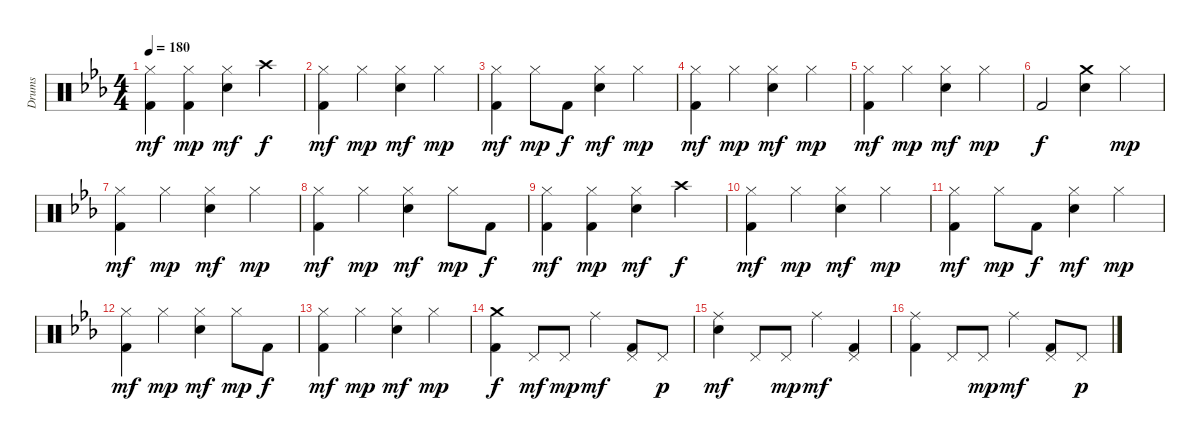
\track ("Drums" "Drums") {instrument percussion}
\staff {score}
\articulation defaults
\ts (4 4)
\tempo 180
\clef neutral
\ks eb
("Hi-Hat (closed)" "Kick (hit) 2").4{dy mf} ("Hi-Hat (closed)" "Kick (hit) 2").4{dy mp} ("Hi-Hat (closed)" "Electric Snare (hit)").4{dy mf} "Crash high (hit)".4{dy f} |
("Hi-Hat (closed)" "Kick (hit) 2").4{dy mf} "Hi-Hat (closed)".4{dy mp} ("Hi-Hat (closed)" "Electric Snare (hit)").4{dy mf} "Hi-Hat (closed)".4{dy mp} |
("Hi-Hat (closed)" "Kick (hit) 2").4{dy mf} "Hi-Hat (closed)".8{dy mp} "Kick (hit) 2".8{dy f} ("Hi-Hat (closed)" "Electric Snare (hit)").4{dy mf} "Hi-Hat (closed)".4{dy mp} |
("Hi-Hat (closed)" "Kick (hit) 2").4{dy mf} "Hi-Hat (closed)".4{dy mp} ("Hi-Hat (closed)" "Electric Snare (hit)").4{dy mf} "Hi-Hat (closed)".4{dy mp} |
("Hi-Hat (closed)" "Kick (hit) 2").4{dy mf} "Hi-Hat (closed)".4{dy mp} ("Hi-Hat (closed)" "Electric Snare (hit)").4{dy mf} "Hi-Hat (closed)".4{dy mp} |
"Kick (hit) 2".2{dy f} ("Crash medium (hit)" "Electric Snare (hit)").4 "Hi-Hat (closed)".4{dy mp} |
("Hi-Hat (closed)" "Kick (hit) 2").4{dy mf} "Hi-Hat (closed)".4{dy mp} ("Hi-Hat (closed)" "Electric Snare (hit)").4{dy mf} "Hi-Hat (closed)".4{dy mp} |
("Hi-Hat (closed)" "Kick (hit) 2").4{dy mf} "Hi-Hat (closed)".4{dy mp} ("Hi-Hat (closed)" "Electric Snare (hit)").4{dy mf} "Hi-Hat (closed)".8{dy mp} "Kick (hit) 2".8{dy f} |
("Hi-Hat (closed)" "Kick (hit) 2").4{dy mf} ("Hi-Hat (closed)" "Kick (hit) 2").4{dy mp} ("Hi-Hat (closed)" "Electric Snare (hit)").4{dy mf} "Crash high (hit)".4{dy f} |
("Hi-Hat (closed)" "Kick (hit) 2").4{dy mf} "Hi-Hat (closed)".4{dy mp} ("Hi-Hat (closed)" "Electric Snare (hit)").4{dy mf} "Hi-Hat (closed)".4{dy mp} |
("Hi-Hat (closed)" "Kick (hit) 2").4{dy mf} "Hi-Hat (closed)".8{dy mp} "Kick (hit) 2".8{dy f} ("Hi-Hat (closed)" "Electric Snare (hit)").4{dy mf} "Hi-Hat (closed)".4{dy mp} |
("Hi-Hat (closed)" "Kick (hit) 2").4{dy mf} "Hi-Hat (closed)".4{dy mp} ("Hi-Hat (closed)" "Electric Snare (hit)").4{dy mf} "Hi-Hat (closed)".8{dy mp} "Kick (hit) 2".8{dy f} |
("Hi-Hat (closed)" "Kick (hit) 2").4{dy mf} "Hi-Hat (closed)".4{dy mp} ("Hi-Hat (closed)" "Electric Snare (hit)").4{dy mf} "Hi-Hat (closed)".4{dy mp} |
("Crash medium (hit)" "Kick (hit) 2").4{dy f} "Pedal Hi-Hat (hit)".8{dy mf} "Pedal Hi-Hat (hit)".8{dy mp} "Ride (middle)".4{dy mf} ("Pedal Hi-Hat (hit)" "Kick (hit) 2").8 "Pedal Hi-Hat (hit)".8{dy p} |
("Ride (middle)" "Electric Snare (hit)").4{dy mf} "Pedal Hi-Hat (hit)".8 "Pedal Hi-Hat (hit)".8{dy mp} "Ride (middle)".4{dy mf} ("Pedal Hi-Hat (hit)" "Kick (hit) 2").4 |
("Ride (middle)" "Kick (hit) 2").4 "Pedal Hi-Hat (hit)".8 "Pedal Hi-Hat (hit)".8{dy mp} "Ride (middle)".4{dy mf} ("Pedal Hi-Hat (hit)" "Kick (hit) 2").8 "Pedal Hi-Hat (hit)".8{dy p}
